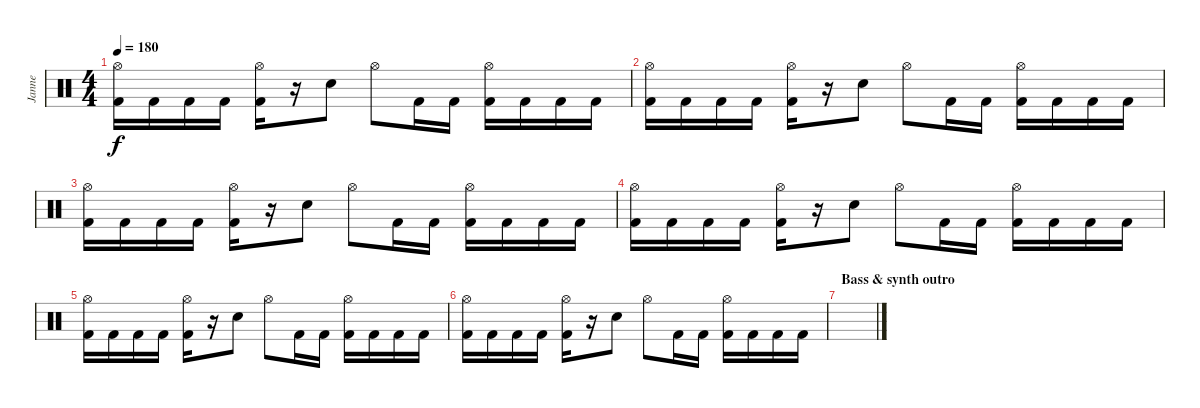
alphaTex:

\track ("Janne" "Janne") {instrument percussion}
\staff {score}
\articulation defaults
\ts (4 4)
\tempo 180
\clef neutral
\ks c
("Hi-Hat (open)" "Kick (hit) 2").16{dy f} "Kick (hit) 2".16 "Kick (hit) 2".16 "Kick (hit) 2".16 ("Hi-Hat (open)" "Kick (hit) 2").16 r.16 "Electric Snare (hit)".8 "Hi-Hat (open)".8 "Kick (hit) 2".16 "Kick (hit) 2".16 ("Hi-Hat (open)" "Kick (hit) 2").16 "Kick (hit) 2".16 "Kick (hit) 2".16 "Kick (hit) 2".16 |
("Hi-Hat (open)" "Kick (hit) 2").16 "Kick (hit) 2".16 "Kick (hit) 2".16 "Kick (hit) 2".16 ("Hi-Hat (open)" "Kick (hit) 2").16 r.16 "Electric Snare (hit)".8 "Hi-Hat (open)".8 "Kick (hit) 2".16 "Kick (hit) 2".16 ("Hi-Hat (open)" "Kick (hit) 2").16 "Kick (hit) 2".16 "Kick (hit) 2".16 "Kick (hit) 2".16 |
("Hi-Hat (open)" "Kick (hit) 2").16 "Kick (hit) 2".16 "Kick (hit) 2".16 "Kick (hit) 2".16 ("Hi-Hat (open)" "Kick (hit) 2").16 r.16 "Electric Snare (hit)".8 "Hi-Hat (open)".8 "Kick (hit) 2".16 "Kick (hit) 2".16 ("Hi-Hat (open)" "Kick (hit) 2").16 "Kick (hit) 2".16 "Kick (hit) 2".16 "Kick (hit) 2".16 |
("Hi-Hat (open)" "Kick (hit) 2").16 "Kick (hit) 2".16 "Kick (hit) 2".16 "Kick (hit) 2".16 ("Hi-Hat (open)" "Kick (hit) 2").16 r.16 "Electric Snare (hit)".8 "Hi-Hat (open)".8 "Kick (hit) 2".16 "Kick (hit) 2".16 ("Hi-Hat (open)" "Kick (hit) 2").16 "Kick (hit) 2".16 "Kick (hit) 2".16 "Kick (hit) 2".16 |
("Hi-Hat (open)" "Kick (hit) 2").16 "Kick (hit) 2".16 "Kick (hit) 2".16 "Kick (hit) 2".16 ("Hi-Hat (open)" "Kick (hit) 2").16 r.16 "Electric Snare (hit)".8 "Hi-Hat (open)".8 "Kick (hit) 2".16 "Kick (hit) 2".16 ("Hi-Hat (open)" "Kick (hit) 2").16 "Kick (hit) 2".16 "Kick (hit) 2".16 "Kick (hit) 2".16 |
("Hi-Hat (open)" "Kick (hit) 2").16 "Kick (hit) 2".16 "Kick (hit) 2".16 "Kick (hit) 2".16 ("Hi-Hat (open)" "Kick (hit) 2").16 r.16 "Electric Snare (hit)".8 "Hi-Hat (open)".8 "Kick (hit) 2".16 "Kick (hit) 2".16 ("Hi-Hat (open)" "Kick (hit) 2").16 "Kick (hit) 2".16 "Kick (hit) 2".16 "Kick (hit) 2".16 |
\section ("" "Bass & synth outro")
